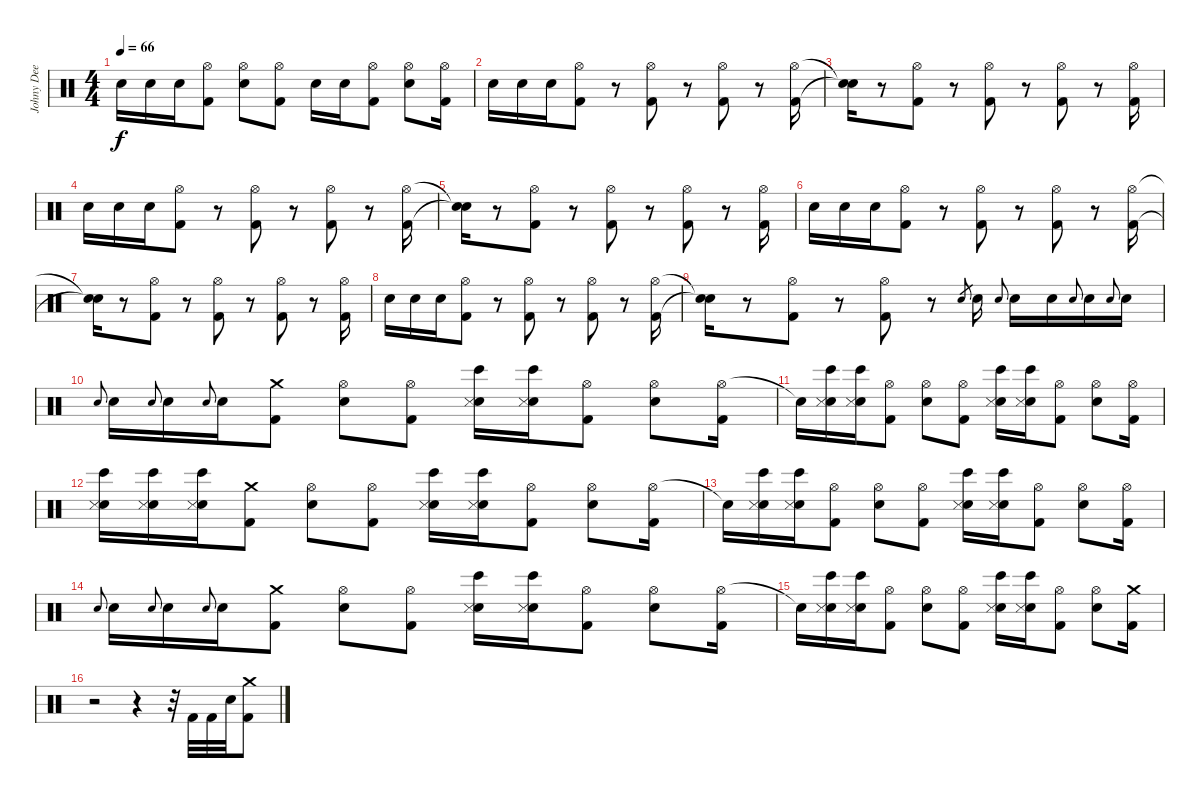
\track ("Johny Dee" "Johny Dee") {instrument percussion}
\staff {score}
\articulation defaults
\ts (4 4)
\tempo 66
\clef neutral
\ks c "Snare (hit)"{t}.16{dy f} "Snare (hit) 2".16 "Snare (hit) 2".16
("Hi-Hat (open)" "Kick (hit) 2").8 ("Hi-Hat (open)" "Snare (hit) 2").8 ("Hi-Hat (open)" "Kick (hit) 2").8 "Snare (hit) 2".16 "Snare (hit) 2".16 ("Hi-Hat (open)" "Kick (hit) 2").8 ("Hi-Hat (open)" "Snare (hit) 2").8 ("Hi-Hat (open)" "Kick (hit) 2").16 |
"Snare (hit) 2".16 "Snare (hit) 2".16 "Snare (hit) 2".16 ("Hi-Hat (open)" "Kick (hit) 2").8 r.8 ("Hi-Hat (open)" "Kick (hit) 2").8 r.8 ("Hi-Hat (open)" "Kick (hit) 2").8 r.8 ("Hi-Hat (open)" "Kick (hit) 2").16 |
("Snare (hit)"{t} "Snare (hit)"{t}).16 r.8 ("Hi-Hat (open)" "Kick (hit) 2").8 r.8 ("Hi-Hat (open)" "Kick (hit) 2").8 r.8 ("Hi-Hat (open)" "Kick (hit) 2").8 r.8 ("Hi-Hat (open)" "Kick (hit) 2").16 |
"Snare (hit) 2".16 "Snare (hit) 2".16 "Snare (hit) 2".16 ("Hi-Hat (open)" "Kick (hit) 2").8 r.8 ("Hi-Hat (open)" "Kick (hit) 2").8 r.8 ("Hi-Hat (open)" "Kick (hit) 2").8 r.8 ("Hi-Hat (open)" "Kick (hit) 2").16 |
("Snare (hit)"{t} "Snare (hit)"{t}).16 r.8 ("Hi-Hat (open)" "Kick (hit) 2").8 r.8 ("Hi-Hat (open)" "Kick (hit) 2").8 r.8 ("Hi-Hat (open)" "Kick (hit) 2").8 r.8 ("Hi-Hat (open)" "Kick (hit) 2").16 |
"Snare (hit) 2".16 "Snare (hit) 2".16 "Snare (hit) 2".16 ("Hi-Hat (open)" "Kick (hit) 2").8 r.8 ("Hi-Hat (open)" "Kick (hit) 2").8 r.8 ("Hi-Hat (open)" "Kick (hit) 2").8 r.8 ("Hi-Hat (open)" "Kick (hit) 2").16 |
("Snare (hit)"{t} "Snare (hit)"{t}).16 r.8 ("Hi-Hat (open)" "Kick (hit) 2").8 r.8 ("Hi-Hat (open)" "Kick (hit) 2").8 r.8 ("Hi-Hat (open)" "Kick (hit) 2").8 r.8 ("Hi-Hat (open)" "Kick (hit) 2").16 |
"Snare (hit) 2".16 "Snare (hit) 2".16 "Snare (hit) 2".16 ("Hi-Hat (open)" "Kick (hit) 2").8 r.8 ("Hi-Hat (open)" "Kick (hit) 2").8 r.8 ("Hi-Hat (open)" "Kick (hit) 2").8 r.8 ("Hi-Hat (open)" "Kick (hit) 2").16 |
("Snare (hit)"{t} "Snare (hit)"{t}).16 r.8 ("Hi-Hat (open)" "Kick (hit) 2").8 r.8 ("Hi-Hat (open)" "Kick (hit) 2").8 r.8 "Snare (hit) 2".8{gr} "Snare (hit) 2".16 "Snare (hit) 2".8{gr onbeat} "Snare (hit) 2".16 "Snare (hit) 2".16 "Snare (hit) 2".8{gr onbeat} "Snare (hit) 2".16 "Snare (hit) 2".8{gr onbeat} "Snare (hit) 2".16 |
"Snare (hit) 2".8{gr onbeat} "Snare (hit) 2".16 "Snare (hit) 2".8{gr onbeat} "Snare (hit) 2".16 "Snare (hit) 2".8{gr onbeat} "Snare (hit) 2".16 ("Crash medium (hit)" "Kick (hit) 2").8 ("Hi-Hat (open)" "Snare (hit) 2").8 ("Hi-Hat (open)" "Kick (hit) 2").8 ("Snare (hit) 2" "Metronome (hit)" "Bongo High (hit)").16 ("Snare (hit) 2" "Metronome (hit)" "Bongo High (hit)").16 ("Hi-Hat (open)" "Kick (hit) 2").8 ("Hi-Hat (open)" "Snare (hit) 2").8 ("Hi-Hat (open)" "Kick (hit) 2").16 |
"Snare (hit)"{t}.16 ("Snare (hit) 2" "Metronome (hit)" "Bongo High (hit)").16 ("Snare (hit) 2" "Metronome (hit)" "Bongo High (hit)").16 ("Hi-Hat (open)" "Kick (hit) 2").8 ("Hi-Hat (open)" "Snare (hit) 2").8 ("Hi-Hat (open)" "Kick (hit) 2").8 ("Snare (hit) 2" "Metronome (hit)" "Bongo High (hit)").16 ("Snare (hit) 2" "Metronome (hit)" "Bongo High (hit)").16 ("Hi-Hat (open)" "Kick (hit) 2").8 ("Hi-Hat (open)" "Snare (hit) 2").8 ("Hi-Hat (open)" "Kick (hit) 2").16 |
("Snare (hit) 2" "Metronome (hit)" "Bongo High (hit)").16 ("Snare (hit) 2" "Metronome (hit)" "Bongo High (hit)").16 ("Snare (hit) 2" "Metronome (hit)" "Bongo High (hit)").16 ("Crash medium (hit)" "Kick (hit) 2").8 ("Hi-Hat (open)" "Snare (hit) 2").8 ("Hi-Hat (open)" "Kick (hit) 2").8 ("Snare (hit) 2" "Metronome (hit)" "Bongo High (hit)").16 ("Snare (hit) 2" "Metronome (hit)" "Bongo High (hit)").16 ("Hi-Hat (open)" "Kick (hit) 2").8 ("Hi-Hat (open)" "Snare (hit) 2").8 ("Hi-Hat (open)" "Kick (hit) 2").16 |
"Snare (hit)"{t}.16 ("Snare (hit) 2" "Metronome (hit)" "Bongo High (hit)").16 ("Snare (hit) 2" "Metronome (hit)" "Bongo High (hit)").16 ("Hi-Hat (open)" "Kick (hit) 2").8 ("Hi-Hat (open)" "Snare (hit) 2").8 ("Hi-Hat (open)" "Kick (hit) 2").8 ("Snare (hit) 2" "Metronome (hit)" "Bongo High (hit)").16 ("Snare (hit) 2" "Metronome (hit)" "Bongo High (hit)").16 ("Hi-Hat (open)" "Kick (hit) 2").8 ("Hi-Hat (open)" "Snare (hit) 2").8 ("Hi-Hat (open)" "Kick (hit) 2").16 |
"Snare (hit) 2".8{gr onbeat} "Snare (hit) 2".16 "Snare (hit) 2".8{gr onbeat} "Snare (hit) 2".16 "Snare (hit) 2".8{gr onbeat} "Snare (hit) 2".16 ("Crash medium (hit)" "Kick (hit) 2").8 ("Hi-Hat (open)" "Snare (hit) 2").8 ("Hi-Hat (open)" "Kick (hit) 2").8 ("Snare (hit) 2" "Metronome (hit)" "Bongo High (hit)").16 ("Snare (hit) 2" "Metronome (hit)" "Bongo High (hit)").16 ("Hi-Hat (open)" "Kick (hit) 2").8 ("Hi-Hat (open)" "Snare (hit) 2").8 ("Hi-Hat (open)" "Kick (hit) 2").16 |
"Snare (hit)"{t}.16 ("Snare (hit) 2" "Metronome (hit)" "Bongo High (hit)").16 ("Snare (hit) 2" "Metronome (hit)" "Bongo High (hit)").16 ("Hi-Hat (open)" "Kick (hit) 2").8 ("Hi-Hat (open)" "Snare (hit) 2").8 ("Hi-Hat (open)" "Kick (hit) 2").8 ("Snare (hit) 2" "Metronome (hit)" "Bongo High (hit)").16 ("Snare (hit) 2" "Metronome (hit)" "Bongo High (hit)").16 ("Hi-Hat (open)" "Kick (hit) 2").8 ("Hi-Hat (open)" "Snare (hit) 2").8 ("Crash medium (hit)" "Kick (hit) 2").16 |
r.2 r.4 r.32 "Kick (hit) 2".32 "Kick (hit) 2".32 "Snare (hit) 2".32 ("Crash medium (hit)" "Kick (hit) 2").8
